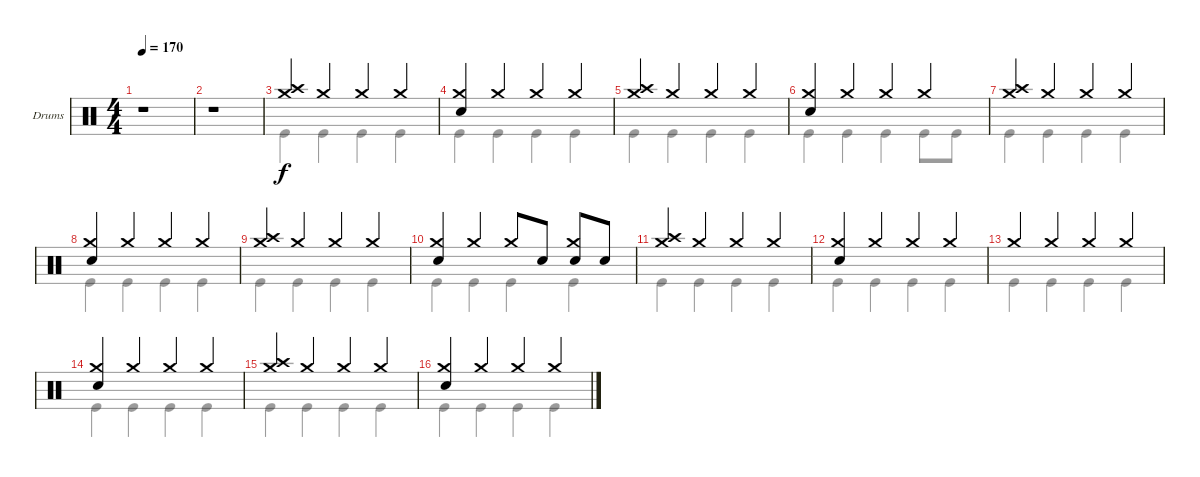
\defaultSystemsLayout 4
\bracketExtendMode groupsimilarinstruments
\firstSystemTrackNameOrientation horizontal
\otherSystemsTrackNameOrientation horizontal
\track ("Drumkit" "Drums") {instrument percussion}
\staff {score}
\articulation defaults
\voice
\ts (4 4)
\tempo 170
\clef neutral
\ks c
r.1{dy f} |
r.1 |
("Crash medium (hit)" "Crash high (hit)").4 "Crash medium (hit)".4 "Crash medium (hit)".4 "Crash medium (hit)".4 |
("Crash medium (hit)" "Snare (hit) 2").4 "Crash medium (hit)".4 "Crash medium (hit)".4 "Crash medium (hit)".4 |
("Crash medium (hit)" "Crash high (hit)").4 "Crash medium (hit)".4 "Crash medium (hit)".4 "Crash medium (hit)".4 |
("Crash medium (hit)" "Snare (hit) 2").4 "Crash medium (hit)".4 "Crash medium (hit)".4 "Crash medium (hit)".4 |
("Crash medium (hit)" "Crash high (hit)").4 "Crash medium (hit)".4 "Crash medium (hit)".4 "Crash medium (hit)".4 |
("Crash medium (hit)" "Snare (hit) 2").4 "Crash medium (hit)".4 "Crash medium (hit)".4 "Crash medium (hit)".4 |
("Crash medium (hit)" "Crash high (hit)").4 "Crash medium (hit)".4 "Crash medium (hit)".4 "Crash medium (hit)".4 |
("Crash medium (hit)" "Snare (hit) 2").4 "Crash medium (hit)".4 "Crash medium (hit)".8 "Snare (hit) 2".8 ("Crash medium (hit)" "Snare (hit) 2").8 "Snare (hit) 2".8 |
("Crash medium (hit)" "Crash high (hit)").4 "Crash medium (hit)".4 "Crash medium (hit)".4 "Crash medium (hit)".4 |
("Crash medium (hit)" "Snare (hit) 2").4 "Crash medium (hit)".4 "Crash medium (hit)".4 "Crash medium (hit)".4 |
"Crash medium (hit)".4 "Crash medium (hit)".4 "Crash medium (hit)".4 "Crash medium (hit)".4 |
("Crash medium (hit)" "Snare (hit) 2").4 "Crash medium (hit)".4 "Crash medium (hit)".4 "Crash medium (hit)".4 |
("Crash medium (hit)" "Crash high (hit)").4 "Crash medium (hit)".4 "Crash medium (hit)".4 "Crash medium (hit)".4 |
("Crash medium (hit)" "Snare (hit) 2").4 "Crash medium (hit)".4 "Crash medium (hit)".4 "Crash medium (hit)".4
\voice
\clef neutral
\ottava regular
\simile none
\ks c
|
|
"Kick (hit)".4 "Kick (hit)".4 "Kick (hit)".4 "Kick (hit)".4 |
"Kick (hit)".4 "Kick (hit)".4 "Kick (hit)".4 "Kick (hit)".4 |
"Kick (hit)".4 "Kick (hit)".4 "Kick (hit)".4 "Kick (hit)".4 |
"Kick (hit)".4 "Kick (hit)".4 "Kick (hit)".4 "Kick (hit)".8 "Kick (hit)".8 |
"Kick (hit)".4 "Kick (hit)".4 "Kick (hit)".4 "Kick (hit)".4 |
"Kick (hit)".4 "Kick (hit)".4 "Kick (hit)".4 "Kick (hit)".4 |
"Kick (hit)".4 "Kick (hit)".4 "Kick (hit)".4 "Kick (hit)".4 |
"Kick (hit)".4 "Kick (hit)".4 "Kick (hit)".4 "Kick (hit)".4 |
"Kick (hit)".4 "Kick (hit)".4 "Kick (hit)".4 "Kick (hit)".4 |
"Kick (hit)".4 "Kick (hit)".4 "Kick (hit)".4 "Kick (hit)".4 |
"Kick (hit)".4 "Kick (hit)".4 "Kick (hit)".4 "Kick (hit)".4 |
"Kick (hit)".4 "Kick (hit)".4 "Kick (hit)".4 "Kick (hit)".4 |
"Kick (hit)".4 "Kick (hit)".4 "Kick (hit)".4 "Kick (hit)".4 |
"Kick (hit)".4 "Kick (hit)".4 "Kick (hit)".4 "Kick (hit)".4
